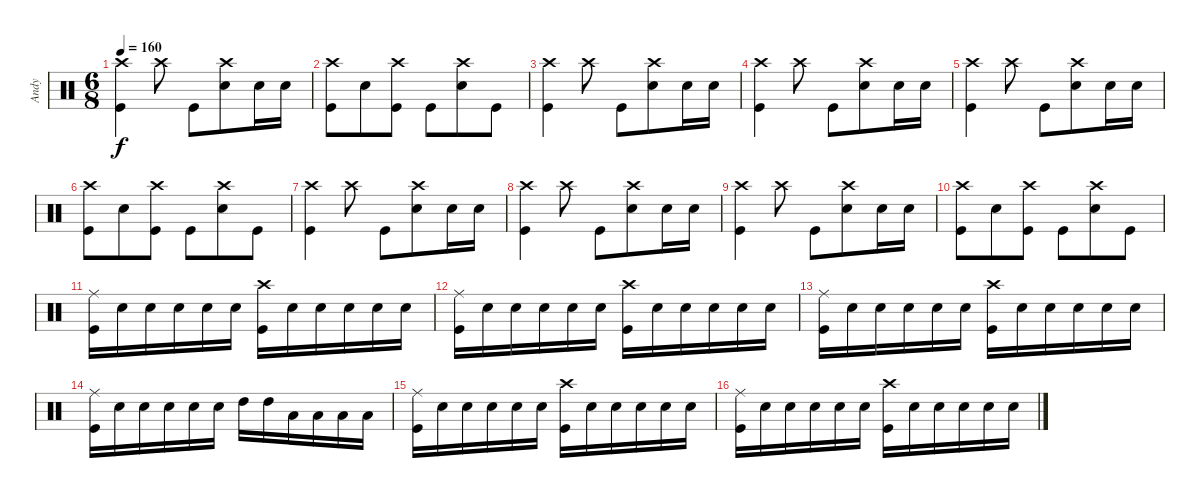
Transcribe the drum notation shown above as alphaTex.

\track ("Andy" "Andy") {instrument percussion}
\staff {score}
\articulation defaults
\ts (6 8)
\tempo 160
\clef neutral
\ks c
("Kick (hit)" "Crash high (hit)").4{dy f} "Crash high (hit)".8 "Kick (hit)".8 ("Snare (hit) 2" "Crash high (hit)").8 "Snare (hit) 2".16 "Snare (hit) 2".16 |
("Kick (hit)" "Crash high (hit)").8 "Snare (hit) 2".8 ("Kick (hit)" "Crash high (hit)").8 "Kick (hit)".8 ("Snare (hit) 2" "Crash high (hit)").8 "Kick (hit)".8 |
("Kick (hit)" "Crash high (hit)").4 "Crash high (hit)".8 "Kick (hit)".8 ("Snare (hit) 2" "Crash high (hit)").8 "Snare (hit) 2".16 "Snare (hit) 2".16 |
("Kick (hit)" "Crash high (hit)").4 "Crash high (hit)".8 "Kick (hit)".8 ("Snare (hit) 2" "Crash high (hit)").8 "Snare (hit) 2".16 "Snare (hit) 2".16 |
("Kick (hit)" "Crash high (hit)").4 "Crash high (hit)".8 "Kick (hit)".8 ("Snare (hit) 2" "Crash high (hit)").8 "Snare (hit) 2".16 "Snare (hit) 2".16 |
("Kick (hit)" "Crash high (hit)").8 "Snare (hit) 2".8 ("Kick (hit)" "Crash high (hit)").8 "Kick (hit)".8 ("Snare (hit) 2" "Crash high (hit)").8 "Kick (hit)".8 |
("Kick (hit)" "Crash high (hit)").4 "Crash high (hit)".8 "Kick (hit)".8 ("Snare (hit) 2" "Crash high (hit)").8 "Snare (hit) 2".16 "Snare (hit) 2".16 |
("Kick (hit)" "Crash high (hit)").4 "Crash high (hit)".8 "Kick (hit)".8 ("Snare (hit) 2" "Crash high (hit)").8 "Snare (hit) 2".16 "Snare (hit) 2".16 |
("Kick (hit)" "Crash high (hit)").4 "Crash high (hit)".8 "Kick (hit)".8 ("Snare (hit) 2" "Crash high (hit)").8 "Snare (hit) 2".16 "Snare (hit) 2".16 |
("Kick (hit)" "Crash high (hit)").8 "Snare (hit) 2".8 ("Kick (hit)" "Crash high (hit)").8 "Kick (hit)".8 ("Snare (hit) 2" "Crash high (hit)").8 "Kick (hit)".8 |
("Kick (hit)" "Ride (middle)").16 "Snare (hit) 2".16 "Snare (hit) 2".16 "Snare (hit) 2".16 "Snare (hit) 2".16 "Snare (hit) 2".16 ("Kick (hit)" "Crash high (hit)").16 "Snare (hit) 2".16 "Snare (hit) 2".16 "Snare (hit) 2".16 "Snare (hit) 2".16 "Snare (hit) 2".16 |
("Kick (hit)" "Ride (middle)").16 "Snare (hit) 2".16 "Snare (hit) 2".16 "Snare (hit) 2".16 "Snare (hit) 2".16 "Snare (hit) 2".16 ("Kick (hit)" "Crash high (hit)").16 "Snare (hit) 2".16 "Snare (hit) 2".16 "Snare (hit) 2".16 "Snare (hit) 2".16 "Snare (hit) 2".16 |
("Kick (hit)" "Ride (middle)").16 "Snare (hit) 2".16 "Snare (hit) 2".16 "Snare (hit) 2".16 "Snare (hit) 2".16 "Snare (hit) 2".16 ("Kick (hit)" "Crash high (hit)").16 "Snare (hit) 2".16 "Snare (hit) 2".16 "Snare (hit) 2".16 "Snare (hit) 2".16 "Snare (hit) 2".16 |
("Kick (hit)" "Ride (middle)").16 "Snare (hit) 2".16 "Snare (hit) 2".16 "Snare (hit) 2".16 "Snare (hit) 2".16 "Snare (hit) 2".16 "High Tom (hit)".16 "High Tom (hit)".16 "Low Floor Tom (hit)".16 "Low Floor Tom (hit)".16 "Low Floor Tom (hit)".16 "Low Floor Tom (hit)".16 |
("Kick (hit)" "Ride (middle)").16 "Snare (hit) 2".16 "Snare (hit) 2".16 "Snare (hit) 2".16 "Snare (hit) 2".16 "Snare (hit) 2".16 ("Kick (hit)" "Crash high (hit)").16 "Snare (hit) 2".16 "Snare (hit) 2".16 "Snare (hit) 2".16 "Snare (hit) 2".16 "Snare (hit) 2".16 |
("Kick (hit)" "Ride (middle)").16 "Snare (hit) 2".16 "Snare (hit) 2".16 "Snare (hit) 2".16 "Snare (hit) 2".16 "Snare (hit) 2".16 ("Kick (hit)" "Crash high (hit)").16 "Snare (hit) 2".16 "Snare (hit) 2".16 "Snare (hit) 2".16 "Snare (hit) 2".16 "Snare (hit) 2".16
